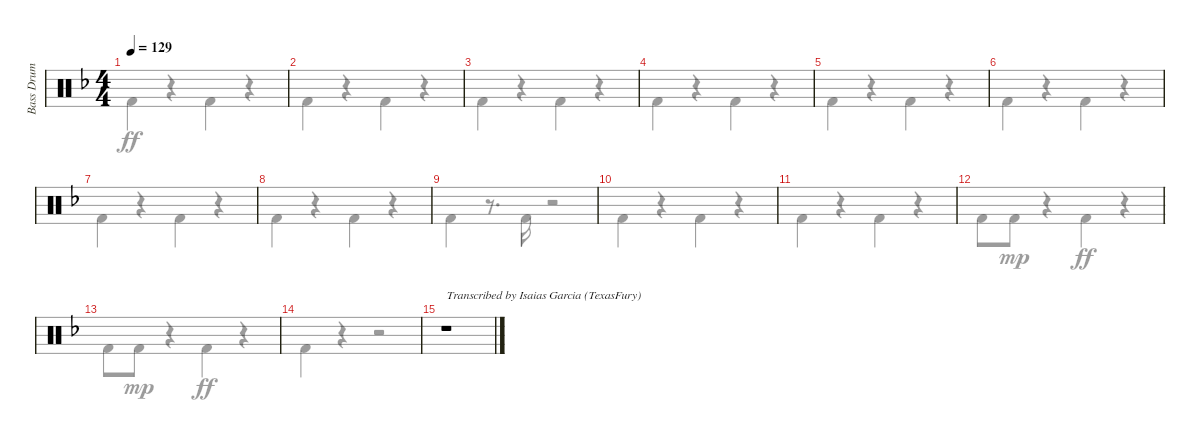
\track ("Bass Drum" "Bass Drum") {instrument percussion}
\staff {score}
\articulation defaults
\voice
\ts (4 4)
\tempo 129
\clef neutral
\ks dminor
|
|
|
|
|
|
|
|
|
|
|
|
|
|
r.1{txt "Transcribed by Isaias Garcia (TexasFury)"}
\voice
\clef neutral
\ottava regular
\simile none
\ks dminor "Kick (hit) 2".4{dy ff}
r.4 "Kick (hit) 2".4 r.4 |
"Kick (hit) 2".4 r.4 "Kick (hit) 2".4 r.4 |
"Kick (hit) 2".4 r.4 "Kick (hit) 2".4 r.4 |
"Kick (hit) 2".4 r.4 "Kick (hit) 2".4 r.4 |
"Kick (hit) 2".4 r.4 "Kick (hit) 2".4 r.4 |
"Kick (hit) 2".4 r.4 "Kick (hit) 2".4 r.4 |
"Kick (hit) 2".4 r.4 "Kick (hit) 2".4 r.4 |
"Kick (hit) 2".4 r.4 "Kick (hit) 2".4 r.4 |
"Kick (hit) 2".4 r.8{d} "Kick (hit) 2".16 r.2 |
"Kick (hit) 2".4 r.4 "Kick (hit) 2".4 r.4 |
"Kick (hit) 2".4 r.4 "Kick (hit) 2".4 r.4 |
"Kick (hit) 2".8 "Kick (hit) 2".8{dy mp} r.4 "Kick (hit) 2".4{dy ff} r.4 |
"Kick (hit) 2".8 "Kick (hit) 2".8{dy mp} r.4 "Kick (hit) 2".4{dy ff} r.4 |
"Kick (hit) 2".4 r.4 r.2 |
r.1
